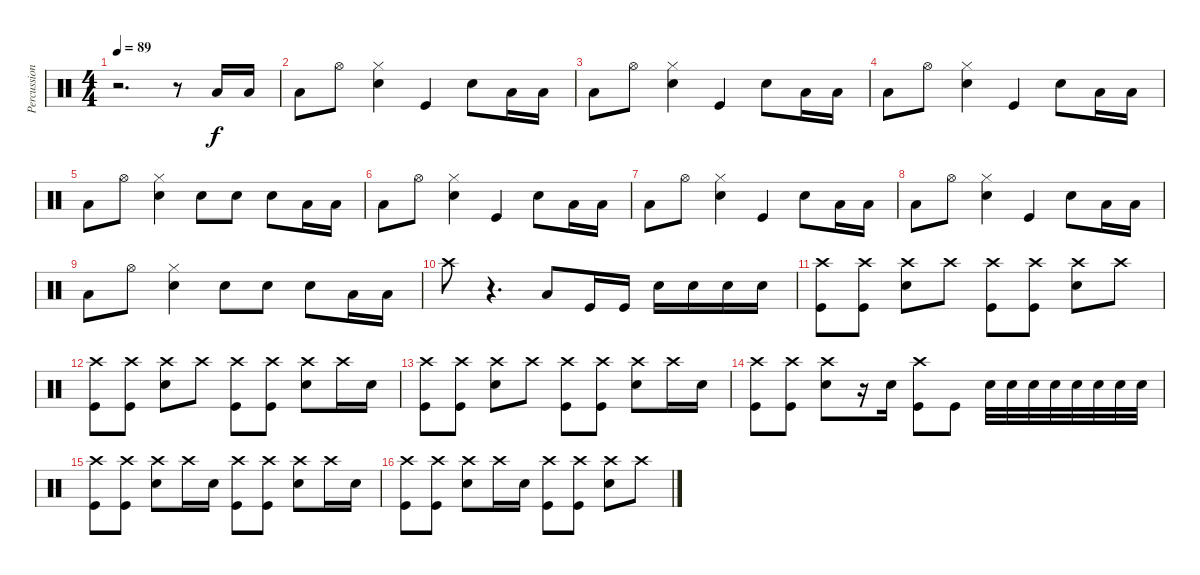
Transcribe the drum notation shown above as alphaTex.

\track ("Percussion" "Percussion") {instrument percussion}
\staff {score}
\articulation defaults
\ts (4 4)
\tempo 89
\clef neutral
\ks c
r.2{d dy mp} r.8 "Low Floor Tom (hit)".16{dy f} "Low Floor Tom (hit)".16 |
"Low Floor Tom (hit)".8 "Hi-Hat (open)".8 ("Hi-Hat (closed)" "Electric Snare (hit)").4 "Kick (hit)".4 "Electric Snare (hit)".8 "Low Floor Tom (hit)".16 "Low Floor Tom (hit)".16 |
"Low Floor Tom (hit)".8 "Hi-Hat (open)".8 ("Hi-Hat (closed)" "Electric Snare (hit)").4 "Kick (hit)".4 "Electric Snare (hit)".8 "Low Floor Tom (hit)".16 "Low Floor Tom (hit)".16 |
"Low Floor Tom (hit)".8 "Hi-Hat (open)".8 ("Hi-Hat (closed)" "Electric Snare (hit)").4 "Kick (hit)".4 "Electric Snare (hit)".8 "Low Floor Tom (hit)".16 "Low Floor Tom (hit)".16 |
"Low Floor Tom (hit)".8 "Hi-Hat (open)".8 ("Hi-Hat (closed)" "Electric Snare (hit)").4 "Electric Snare (hit)".8 "Electric Snare (hit)".8 "Electric Snare (hit)".8 "Low Floor Tom (hit)".16 "Low Floor Tom (hit)".16 |
"Low Floor Tom (hit)".8 "Hi-Hat (open)".8 ("Hi-Hat (closed)" "Electric Snare (hit)").4 "Kick (hit)".4 "Electric Snare (hit)".8 "Low Floor Tom (hit)".16 "Low Floor Tom (hit)".16 |
"Low Floor Tom (hit)".8 "Hi-Hat (open)".8 ("Hi-Hat (closed)" "Electric Snare (hit)").4 "Kick (hit)".4 "Electric Snare (hit)".8 "Low Floor Tom (hit)".16 "Low Floor Tom (hit)".16 |
"Low Floor Tom (hit)".8 "Hi-Hat (open)".8 ("Hi-Hat (closed)" "Electric Snare (hit)").4 "Kick (hit)".4 "Electric Snare (hit)".8 "Low Floor Tom (hit)".16 "Low Floor Tom (hit)".16 |
"Low Floor Tom (hit)".8 "Hi-Hat (open)".8 ("Hi-Hat (closed)" "Electric Snare (hit)").4 "Electric Snare (hit)".8 "Electric Snare (hit)".8 "Electric Snare (hit)".8 "Low Floor Tom (hit)".16 "Low Floor Tom (hit)".16 |
"Crash high (hit)".8 r.4{d} "Low Floor Tom (hit)".8 "Kick (hit)".16 "Kick (hit)".16 "Electric Snare (hit)".16 "Electric Snare (hit)".16 "Electric Snare (hit)".16 "Electric Snare (hit)".16 |
("Crash high (hit)" "Kick (hit)").8 ("Crash high (hit)" "Kick (hit)").8 ("Crash high (hit)" "Electric Snare (hit)").8 "Crash high (hit)".8 ("Crash high (hit)" "Kick (hit)").8 ("Crash high (hit)" "Kick (hit)").8 ("Crash high (hit)" "Electric Snare (hit)").8 "Crash high (hit)".8 |
("Crash high (hit)" "Kick (hit)").8 ("Crash high (hit)" "Kick (hit)").8 ("Crash high (hit)" "Electric Snare (hit)").8 "Crash high (hit)".8 ("Crash high (hit)" "Kick (hit)").8 ("Crash high (hit)" "Kick (hit)").8 ("Crash high (hit)" "Electric Snare (hit)").8 "Crash high (hit)".16 "Electric Snare (hit)".16 |
("Crash high (hit)" "Kick (hit)").8 ("Crash high (hit)" "Kick (hit)").8 ("Crash high (hit)" "Electric Snare (hit)").8 "Crash high (hit)".8 ("Crash high (hit)" "Kick (hit)").8 ("Crash high (hit)" "Kick (hit)").8 ("Crash high (hit)" "Electric Snare (hit)").8 "Crash high (hit)".16 "Electric Snare (hit)".16 |
("Crash high (hit)" "Kick (hit)").8 ("Crash high (hit)" "Kick (hit)").8 ("Crash high (hit)" "Electric Snare (hit)").8 r.16 "Electric Snare (hit)".16 ("Crash high (hit)" "Kick (hit)").8 "Kick (hit)".8 "Electric Snare (hit)".32 "Electric Snare (hit)".32 "Electric Snare (hit)".32 "Electric Snare (hit)".32 "Electric Snare (hit)".32 "Electric Snare (hit)".32 "Electric Snare (hit)".32 "Electric Snare (hit)".32 |
("Crash high (hit)" "Kick (hit)").8 ("Crash high (hit)" "Kick (hit)").8 ("Crash high (hit)" "Electric Snare (hit)").8 "Crash high (hit)".16 "Electric Snare (hit)".16 ("Crash high (hit)" "Kick (hit)").8 ("Crash high (hit)" "Kick (hit)").8 ("Crash high (hit)" "Electric Snare (hit)").8 "Crash high (hit)".16 "Electric Snare (hit)".16 |
("Crash high (hit)" "Kick (hit)").8 ("Crash high (hit)" "Kick (hit)").8 ("Crash high (hit)" "Electric Snare (hit)").8 "Crash high (hit)".16 "Electric Snare (hit)".16 ("Crash high (hit)" "Kick (hit)").8 ("Crash high (hit)" "Kick (hit)").8 ("Crash high (hit)" "Electric Snare (hit)").8 "Crash high (hit)".8
